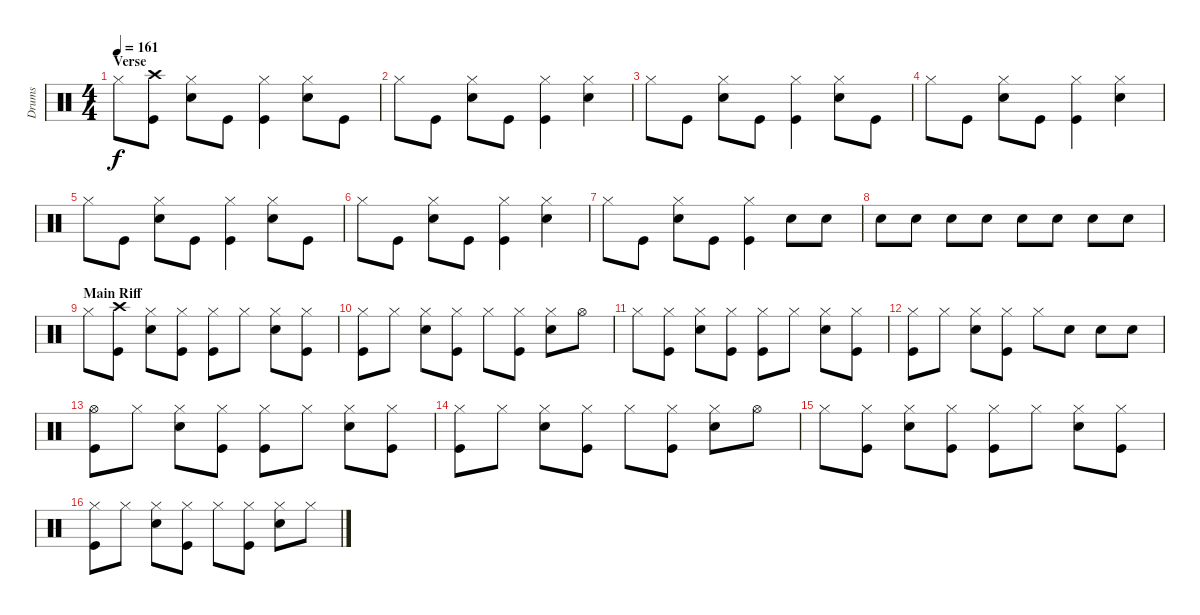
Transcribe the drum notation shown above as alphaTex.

\track ("Drums" "Drums") {instrument percussion}
\staff {score}
\articulation defaults
\ts (4 4)
\section ("" "Verse")
\tempo 161
\clef neutral
\ks c "Hi-Hat (closed)".8{dy f}
("Crash high (hit)" "Kick (hit)").8 ("Hi-Hat (closed)" "Electric Snare (hit)").8 "Kick (hit)".8 ("Hi-Hat (closed)" "Kick (hit)").4 ("Hi-Hat (closed)" "Electric Snare (hit)").8 "Kick (hit)".8 |
"Hi-Hat (closed)".8 "Kick (hit)".8 ("Hi-Hat (closed)" "Electric Snare (hit)").8 "Kick (hit)".8 ("Hi-Hat (closed)" "Kick (hit)").4 ("Hi-Hat (closed)" "Electric Snare (hit)").4 |
"Hi-Hat (closed)".8 "Kick (hit)".8 ("Hi-Hat (closed)" "Electric Snare (hit)").8 "Kick (hit)".8 ("Hi-Hat (closed)" "Kick (hit)").4 ("Hi-Hat (closed)" "Electric Snare (hit)").8 "Kick (hit)".8 |
"Hi-Hat (closed)".8 "Kick (hit)".8 ("Hi-Hat (closed)" "Electric Snare (hit)").8 "Kick (hit)".8 ("Hi-Hat (closed)" "Kick (hit)").4 ("Hi-Hat (closed)" "Electric Snare (hit)").4 |
"Hi-Hat (closed)".8 "Kick (hit)".8 ("Hi-Hat (closed)" "Electric Snare (hit)").8 "Kick (hit)".8 ("Hi-Hat (closed)" "Kick (hit)").4 ("Hi-Hat (closed)" "Electric Snare (hit)").8 "Kick (hit)".8 |
"Hi-Hat (closed)".8 "Kick (hit)".8 ("Hi-Hat (closed)" "Electric Snare (hit)").8 "Kick (hit)".8 ("Hi-Hat (closed)" "Kick (hit)").4 ("Hi-Hat (closed)" "Electric Snare (hit)").4 |
"Hi-Hat (closed)".8 "Kick (hit)".8 ("Hi-Hat (closed)" "Electric Snare (hit)").8 "Kick (hit)".8 ("Hi-Hat (closed)" "Kick (hit)").4 "Electric Snare (hit)".8 "Electric Snare (hit)".8 |
"Electric Snare (hit)".8 "Electric Snare (hit)".8 "Electric Snare (hit)".8 "Electric Snare (hit)".8 "Electric Snare (hit)".8 "Electric Snare (hit)".8 "Electric Snare (hit)".8 "Electric Snare (hit)".8 |
\section ("" "Main Riff")
"Hi-Hat (closed)".8 ("Crash high (hit)" "Kick (hit)").8 ("Hi-Hat (closed)" "Electric Snare (hit)").8 ("Hi-Hat (closed)" "Kick (hit)").8 ("Hi-Hat (closed)" "Kick (hit)").8 "Hi-Hat (closed)".8 ("Hi-Hat (closed)" "Electric Snare (hit)").8 ("Hi-Hat (closed)" "Kick (hit)").8 |
("Hi-Hat (closed)" "Kick (hit)").8 "Hi-Hat (closed)".8 ("Hi-Hat (closed)" "Electric Snare (hit)").8 ("Hi-Hat (closed)" "Kick (hit)").8 "Hi-Hat (closed)".8 ("Hi-Hat (closed)" "Kick (hit)").8 ("Hi-Hat (closed)" "Electric Snare (hit)").8 "Hi-Hat (open)".8 |
"Hi-Hat (closed)".8 ("Hi-Hat (closed)" "Kick (hit)").8 ("Hi-Hat (closed)" "Electric Snare (hit)").8 ("Hi-Hat (closed)" "Kick (hit)").8 ("Hi-Hat (closed)" "Kick (hit)").8 "Hi-Hat (closed)".8 ("Hi-Hat (closed)" "Electric Snare (hit)").8 ("Hi-Hat (closed)" "Kick (hit)").8 |
("Hi-Hat (closed)" "Kick (hit)").8 "Hi-Hat (closed)".8 ("Hi-Hat (closed)" "Electric Snare (hit)").8 ("Hi-Hat (closed)" "Kick (hit)").8 "Hi-Hat (closed)".8 "Electric Snare (hit)".8 "Electric Snare (hit)".8 "Electric Snare (hit)".8 |
("Hi-Hat (open)" "Kick (hit)").8 "Hi-Hat (closed)".8 ("Hi-Hat (closed)" "Electric Snare (hit)").8 ("Hi-Hat (closed)" "Kick (hit)").8 ("Hi-Hat (closed)" "Kick (hit)").8 "Hi-Hat (closed)".8 ("Hi-Hat (closed)" "Electric Snare (hit)").8 ("Hi-Hat (closed)" "Kick (hit)").8 |
("Hi-Hat (closed)" "Kick (hit)").8 "Hi-Hat (closed)".8 ("Hi-Hat (closed)" "Electric Snare (hit)").8 ("Hi-Hat (closed)" "Kick (hit)").8 "Hi-Hat (closed)".8 ("Hi-Hat (closed)" "Kick (hit)").8 ("Hi-Hat (closed)" "Electric Snare (hit)").8 "Hi-Hat (open)".8 |
"Hi-Hat (closed)".8 ("Hi-Hat (closed)" "Kick (hit)").8 ("Hi-Hat (closed)" "Electric Snare (hit)").8 ("Hi-Hat (closed)" "Kick (hit)").8 ("Hi-Hat (closed)" "Kick (hit)").8 "Hi-Hat (closed)".8 ("Hi-Hat (closed)" "Electric Snare (hit)").8 ("Hi-Hat (closed)" "Kick (hit)").8 |
("Hi-Hat (closed)" "Kick (hit)").8 "Hi-Hat (closed)".8 ("Hi-Hat (closed)" "Electric Snare (hit)").8 ("Hi-Hat (closed)" "Kick (hit)").8 "Hi-Hat (closed)".8 ("Hi-Hat (closed)" "Kick (hit)").8 ("Hi-Hat (closed)" "Electric Snare (hit)").8 "Hi-Hat (closed)".8
